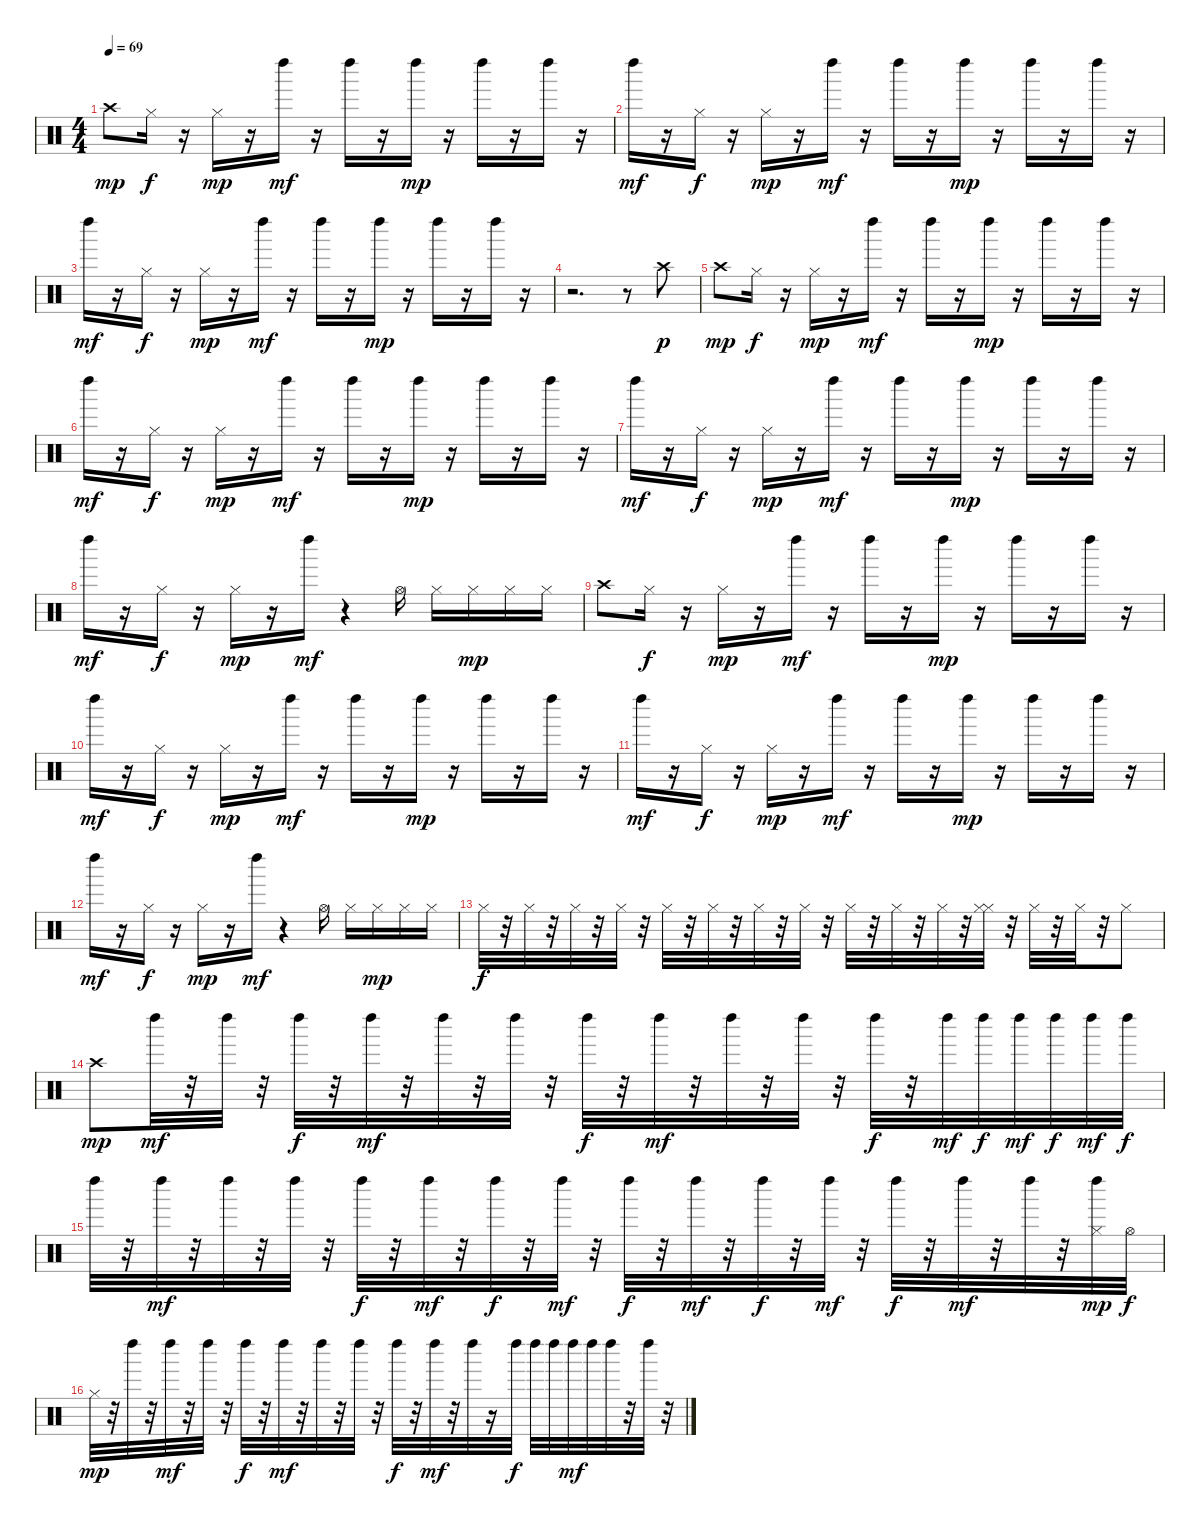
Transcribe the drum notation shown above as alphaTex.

\track "" {instrument percussion}
\staff {score}
\articulation defaults
\ts (4 4)
\tempo 69
\clef neutral
\ks c "Crash high (hit)".8{dy mp} "Hi-Hat (closed)".16{dy f}
r.16 "Hi-Hat (closed)".16{dy mp} r.16 "Left Maraca (hit)".16{dy mf} r.16 "Left Maraca (hit)".16 r.16 "Left Maraca (hit)".16{dy mp} r.16 "Left Maraca (hit)".16 r.16 "Left Maraca (hit)".16 r.16 |
"Left Maraca (hit)".16{dy mf} r.16 "Hi-Hat (closed)".16{dy f} r.16 "Hi-Hat (closed)".16{dy mp} r.16 "Left Maraca (hit)".16{dy mf} r.16 "Left Maraca (hit)".16 r.16 "Left Maraca (hit)".16{dy mp} r.16 "Left Maraca (hit)".16 r.16 "Left Maraca (hit)".16 r.16 |
"Left Maraca (hit)".16{dy mf} r.16 "Hi-Hat (closed)".16{dy f} r.16 "Hi-Hat (closed)".16{dy mp} r.16 "Left Maraca (hit)".16{dy mf} r.16 "Left Maraca (hit)".16 r.16 "Left Maraca (hit)".16{dy mp} r.16 "Left Maraca (hit)".16 r.16 "Left Maraca (hit)".16 r.16 |
r.2{d} r.8 "Crash high (hit)".8{dy p} |
"Crash high (hit)".8{dy mp} "Hi-Hat (closed)".16{dy f} r.16 "Hi-Hat (closed)".16{dy mp} r.16 "Left Maraca (hit)".16{dy mf} r.16 "Left Maraca (hit)".16 r.16 "Left Maraca (hit)".16{dy mp} r.16 "Left Maraca (hit)".16 r.16 "Left Maraca (hit)".16 r.16 |
"Left Maraca (hit)".16{dy mf} r.16 "Hi-Hat (closed)".16{dy f} r.16 "Hi-Hat (closed)".16{dy mp} r.16 "Left Maraca (hit)".16{dy mf} r.16 "Left Maraca (hit)".16 r.16 "Left Maraca (hit)".16{dy mp} r.16 "Left Maraca (hit)".16 r.16 "Left Maraca (hit)".16 r.16 |
"Left Maraca (hit)".16{dy mf} r.16 "Hi-Hat (closed)".16{dy f} r.16 "Hi-Hat (closed)".16{dy mp} r.16 "Left Maraca (hit)".16{dy mf} r.16 "Left Maraca (hit)".16 r.16 "Left Maraca (hit)".16{dy mp} r.16 "Left Maraca (hit)".16 r.16 "Left Maraca (hit)".16 r.16 |
"Left Maraca (hit)".16{dy mf} r.16 "Hi-Hat (closed)".16{dy f} r.16 "Hi-Hat (closed)".16{dy mp} r.16 "Left Maraca (hit)".16{dy mf} r.4 "Hi-Hat (open)".16 "Hi-Hat (closed)".16 "Hi-Hat (closed)".16{dy mp} "Hi-Hat (closed)".16 "Hi-Hat (closed)".16 |
"Crash high (hit)".8 "Hi-Hat (closed)".16{dy f} r.16 "Hi-Hat (closed)".16{dy mp} r.16 "Left Maraca (hit)".16{dy mf} r.16 "Left Maraca (hit)".16 r.16 "Left Maraca (hit)".16{dy mp} r.16 "Left Maraca (hit)".16 r.16 "Left Maraca (hit)".16 r.16 |
"Left Maraca (hit)".16{dy mf} r.16 "Hi-Hat (closed)".16{dy f} r.16 "Hi-Hat (closed)".16{dy mp} r.16 "Left Maraca (hit)".16{dy mf} r.16 "Left Maraca (hit)".16 r.16 "Left Maraca (hit)".16{dy mp} r.16 "Left Maraca (hit)".16 r.16 "Left Maraca (hit)".16 r.16 |
"Left Maraca (hit)".16{dy mf} r.16 "Hi-Hat (closed)".16{dy f} r.16 "Hi-Hat (closed)".16{dy mp} r.16 "Left Maraca (hit)".16{dy mf} r.16 "Left Maraca (hit)".16 r.16 "Left Maraca (hit)".16{dy mp} r.16 "Left Maraca (hit)".16 r.16 "Left Maraca (hit)".16 r.16 |
"Left Maraca (hit)".16{dy mf} r.16 "Hi-Hat (closed)".16{dy f} r.16 "Hi-Hat (closed)".16{dy mp} r.16 "Left Maraca (hit)".16{dy mf} r.4 "Hi-Hat (open)".16 "Hi-Hat (closed)".16 "Hi-Hat (closed)".16{dy mp} "Hi-Hat (closed)".16 "Hi-Hat (closed)".16 |
"Hi-Hat (closed)".32{dy f} r.32 "Hi-Hat (closed)".32 r.32 "Hi-Hat (closed)".32 r.32 "Hi-Hat (closed)".32 r.32 "Hi-Hat (closed)".32 r.32 "Hi-Hat (closed)".32 r.32 "Hi-Hat (closed)".32 r.32 "Hi-Hat (closed)".32 r.32 "Hi-Hat (closed)".32 r.32 "Hi-Hat (closed)".32 r.32 "Hi-Hat (closed)".32 r.32 ("Hi-Hat (closed)" "Hi-Hat (closed)").32 r.32 "Hi-Hat (closed)".32 r.32 "Hi-Hat (closed)".32 r.32 "Hi-Hat (closed)".8 |
"Crash high (hit)".8{dy mp} "Left Maraca (hit)".32{dy mf} r.32 "Left Maraca (hit)".32 r.32 "Left Maraca (hit)".32{dy f} r.32 "Left Maraca (hit)".32{dy mf} r.32 "Left Maraca (hit)".32 r.32 "Left Maraca (hit)".32 r.32 "Left Maraca (hit)".32{dy f} r.32 "Left Maraca (hit)".32{dy mf} r.32 "Left Maraca (hit)".32 r.32 "Left Maraca (hit)".32 r.32 "Left Maraca (hit)".32{dy f} r.32 "Left Maraca (hit)".32{dy mf} "Left Maraca (hit)".32{dy f} "Left Maraca (hit)".32{dy mf} "Left Maraca (hit)".32{dy f} "Left Maraca (hit)".32{dy mf} "Left Maraca (hit)".32{dy f} |
"Left Maraca (hit)".32 r.32 "Left Maraca (hit)".32{dy mf} r.32 "Left Maraca (hit)".32 r.32 "Left Maraca (hit)".32 r.32 "Left Maraca (hit)".32{dy f} r.32 "Left Maraca (hit)".32{dy mf} r.32 "Left Maraca (hit)".32{dy f} r.32 "Left Maraca (hit)".32{dy mf} r.32 "Left Maraca (hit)".32{dy f} r.32 "Left Maraca (hit)".32{dy mf} r.32 "Left Maraca (hit)".32{dy f} r.32 "Left Maraca (hit)".32{dy mf} r.32 "Left Maraca (hit)".32{dy f} r.32 "Left Maraca (hit)".32{dy mf} r.32 "Left Maraca (hit)".32 r.32 ("Left Maraca (hit)" "Hi-Hat (closed)").32{dy mp} "Hi-Hat (open)".32{dy f} |
"Hi-Hat (closed)".32{dy mp} r.32 "Left Maraca (hit)".32 r.32 "Left Maraca (hit)".32{dy mf} r.32 "Left Maraca (hit)".32 r.32 "Left Maraca (hit)".32{dy f} r.32 "Left Maraca (hit)".32{dy mf} r.32 "Left Maraca (hit)".32 r.32 "Left Maraca (hit)".32 r.32 "Left Maraca (hit)".32{dy f} r.32 "Left Maraca (hit)".32{dy mf} r.32 "Left Maraca (hit)".32 r.16 "Left Maraca (hit)".32{dy f} "Left Maraca (hit)".32 "Left Maraca (hit)".32 "Left Maraca (hit)".32{dy mf} "Left Maraca (hit)".32 "Left Maraca (hit)".32 r.32 "Left Maraca (hit)".32 r.32
